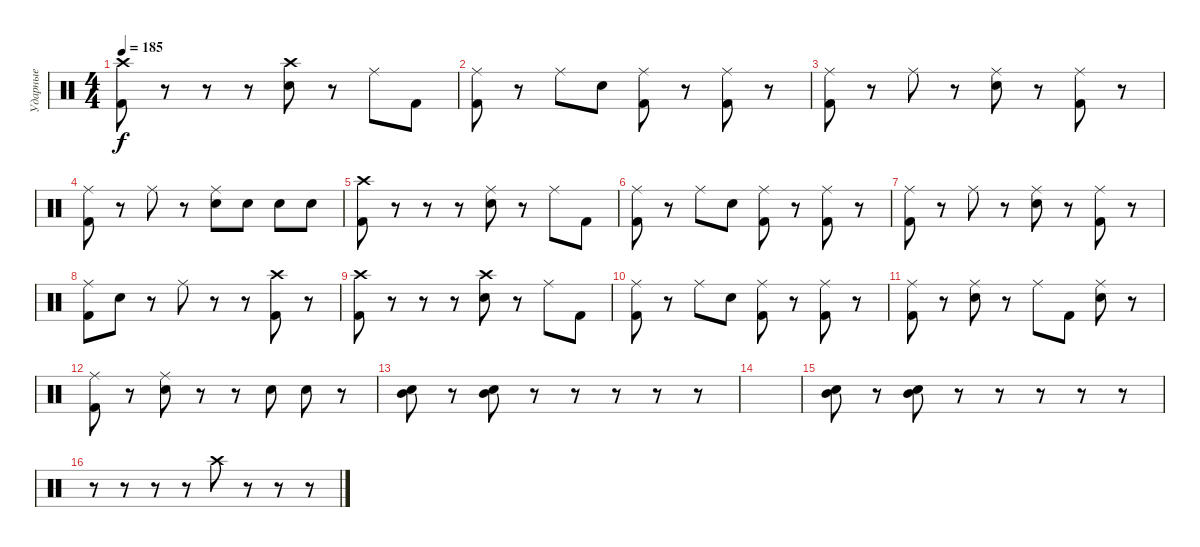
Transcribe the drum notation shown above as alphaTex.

\track ("Ударные" "Ударные") {instrument percussion}
\staff {score}
\articulation defaults
\ts (4 4)
\tempo 185
\clef neutral
\ks c
("Kick (hit) 2" "Crash high (hit)").8{dy f} r.8 r.8 r.8 ("Electric Snare (hit)" "Crash high (hit)").8 r.8 "Ride (middle)".8 "Kick (hit) 2".8 |
("Kick (hit) 2" "Ride (middle)").8 r.8 "Ride (middle)".8 "Electric Snare (hit)".8 ("Kick (hit) 2" "Ride (middle)").8 r.8 ("Kick (hit) 2" "Ride (middle)").8 r.8 |
("Kick (hit) 2" "Ride (middle)").8 r.8 "Ride (middle)".8 r.8 ("Electric Snare (hit)" "Ride (middle)").8 r.8 ("Kick (hit) 2" "Ride (middle)").8 r.8 |
("Kick (hit) 2" "Ride (middle)").8 r.8 "Ride (middle)".8 r.8 ("Electric Snare (hit)" "Ride (middle)").8 "Electric Snare (hit)".8 "Electric Snare (hit)".8 "Electric Snare (hit)".8 |
("Kick (hit) 2" "Crash high (hit)").8 r.8 r.8 r.8 ("Electric Snare (hit)" "Ride (middle)").8 r.8 "Ride (middle)".8 "Kick (hit) 2".8 |
("Kick (hit) 2" "Ride (middle)").8 r.8 "Ride (middle)".8 "Electric Snare (hit)".8 ("Kick (hit) 2" "Ride (middle)").8 r.8 ("Kick (hit) 2" "Ride (middle)").8 r.8 |
("Kick (hit) 2" "Ride (middle)").8 r.8 "Ride (middle)".8 r.8 ("Electric Snare (hit)" "Ride (middle)").8 r.8 ("Kick (hit) 2" "Ride (middle)").8 r.8 |
("Kick (hit) 2" "Ride (middle)").8 "Electric Snare (hit)".8 r.8 "Ride (middle)".8 r.8 r.8 ("Kick (hit) 2" "Crash high (hit)").8 r.8 |
("Kick (hit) 2" "Crash high (hit)").8 r.8 r.8 r.8 ("Electric Snare (hit)" "Crash high (hit)").8 r.8 "Ride (middle)".8 "Kick (hit) 2".8 |
("Kick (hit) 2" "Ride (middle)").8 r.8 "Ride (middle)".8 "Electric Snare (hit)".8 ("Kick (hit) 2" "Ride (middle)").8 r.8 ("Kick (hit) 2" "Ride (middle)").8 r.8 |
("Kick (hit) 2" "Ride (middle)").8 r.8 ("Electric Snare (hit)" "Ride (middle)").8 r.8 "Ride (middle)".8 "Kick (hit) 2".8 ("Electric Snare (hit)" "Ride (middle)").8 r.8 |
("Kick (hit) 2" "Ride (middle)").8 r.8 ("Electric Snare (hit)" "Ride (middle)").8 r.8 r.8 "Electric Snare (hit)".8 "Electric Snare (hit)".8 r.8 |
("Mid Tom (hit)" "Electric Snare (hit)").8 r.8 ("Mid Tom (hit)" "Electric Snare (hit)").8 r.8 r.8 r.8 r.8 r.8 |
|
("Mid Tom (hit)" "Electric Snare (hit)").8 r.8 ("Mid Tom (hit)" "Electric Snare (hit)").8 r.8 r.8 r.8 r.8 r.8 |
r.8 r.8 r.8 r.8 "Crash high (hit)".8 r.8 r.8 r.8
